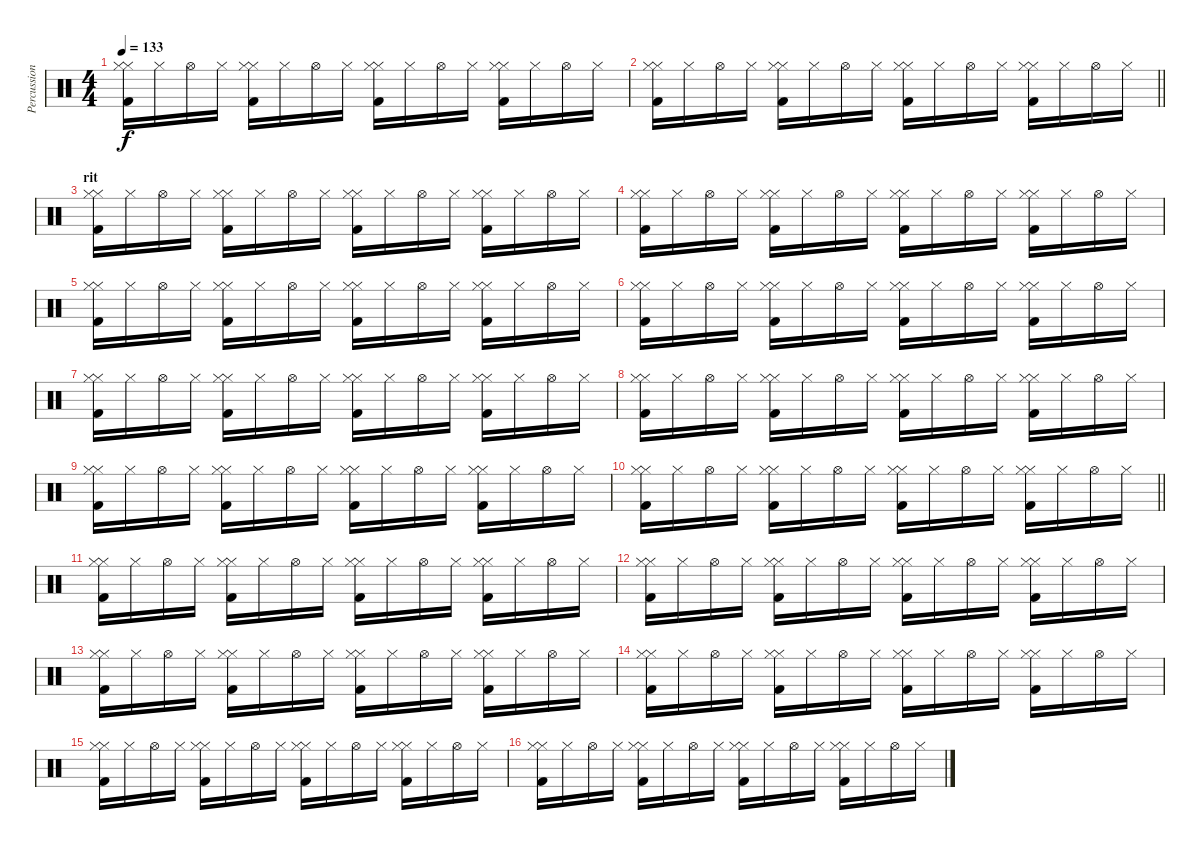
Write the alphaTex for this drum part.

\track ("Percussioni" "Percussion") {instrument percussion}
\staff {score}
\articulation defaults
\ts (4 4)
\tempo 133
\clef neutral
\ks c
("Hi-Hat (closed)" "Kick (hit) 2" "Hi-Hat (closed)").16{dy f} "Hi-Hat (closed)".16 "Hi-Hat (open)".16 "Hi-Hat (closed)".16 ("Hi-Hat (closed)" "Kick (hit) 2" "Hi-Hat (closed)").16 "Hi-Hat (closed)".16 "Hi-Hat (open)".16 "Hi-Hat (closed)".16 ("Hi-Hat (closed)" "Kick (hit) 2" "Hi-Hat (closed)").16 "Hi-Hat (closed)".16 "Hi-Hat (open)".16 "Hi-Hat (closed)".16 ("Hi-Hat (closed)" "Kick (hit) 2" "Hi-Hat (closed)").16 "Hi-Hat (closed)".16 "Hi-Hat (open)".16 "Hi-Hat (closed)".16 |
\barLineRight lightlight
("Hi-Hat (closed)" "Kick (hit) 2" "Hi-Hat (closed)").16 "Hi-Hat (closed)".16 "Hi-Hat (open)".16 "Hi-Hat (closed)".16 ("Hi-Hat (closed)" "Kick (hit) 2" "Hi-Hat (closed)").16 "Hi-Hat (closed)".16 "Hi-Hat (open)".16 "Hi-Hat (closed)".16 ("Hi-Hat (closed)" "Kick (hit) 2" "Hi-Hat (closed)").16 "Hi-Hat (closed)".16 "Hi-Hat (open)".16 "Hi-Hat (closed)".16 ("Hi-Hat (closed)" "Kick (hit) 2" "Hi-Hat (closed)").16 "Hi-Hat (closed)".16 "Hi-Hat (open)".16 "Hi-Hat (closed)".16 |
\section ("" "rit")
("Hi-Hat (closed)" "Kick (hit) 2" "Hi-Hat (closed)").16 "Hi-Hat (closed)".16 "Hi-Hat (open)".16 "Hi-Hat (closed)".16 ("Hi-Hat (closed)" "Kick (hit) 2" "Hi-Hat (closed)").16 "Hi-Hat (closed)".16 "Hi-Hat (open)".16 "Hi-Hat (closed)".16 ("Hi-Hat (closed)" "Kick (hit) 2" "Hi-Hat (closed)").16 "Hi-Hat (closed)".16 "Hi-Hat (open)".16 "Hi-Hat (closed)".16 ("Hi-Hat (closed)" "Kick (hit) 2" "Hi-Hat (closed)").16 "Hi-Hat (closed)".16 "Hi-Hat (open)".16 "Hi-Hat (closed)".16 |
("Hi-Hat (closed)" "Kick (hit) 2" "Hi-Hat (closed)").16 "Hi-Hat (closed)".16 "Hi-Hat (open)".16 "Hi-Hat (closed)".16 ("Hi-Hat (closed)" "Kick (hit) 2" "Hi-Hat (closed)").16 "Hi-Hat (closed)".16 "Hi-Hat (open)".16 "Hi-Hat (closed)".16 ("Hi-Hat (closed)" "Kick (hit) 2" "Hi-Hat (closed)").16 "Hi-Hat (closed)".16 "Hi-Hat (open)".16 "Hi-Hat (closed)".16 ("Hi-Hat (closed)" "Kick (hit) 2" "Hi-Hat (closed)").16 "Hi-Hat (closed)".16 "Hi-Hat (open)".16 "Hi-Hat (closed)".16 |
("Hi-Hat (closed)" "Kick (hit) 2" "Hi-Hat (closed)").16 "Hi-Hat (closed)".16 "Hi-Hat (open)".16 "Hi-Hat (closed)".16 ("Hi-Hat (closed)" "Kick (hit) 2" "Hi-Hat (closed)").16 "Hi-Hat (closed)".16 "Hi-Hat (open)".16 "Hi-Hat (closed)".16 ("Hi-Hat (closed)" "Kick (hit) 2" "Hi-Hat (closed)").16 "Hi-Hat (closed)".16 "Hi-Hat (open)".16 "Hi-Hat (closed)".16 ("Hi-Hat (closed)" "Kick (hit) 2" "Hi-Hat (closed)").16 "Hi-Hat (closed)".16 "Hi-Hat (open)".16 "Hi-Hat (closed)".16 |
("Hi-Hat (closed)" "Kick (hit) 2" "Hi-Hat (closed)").16 "Hi-Hat (closed)".16 "Hi-Hat (open)".16 "Hi-Hat (closed)".16 ("Hi-Hat (closed)" "Kick (hit) 2" "Hi-Hat (closed)").16 "Hi-Hat (closed)".16 "Hi-Hat (open)".16 "Hi-Hat (closed)".16 ("Hi-Hat (closed)" "Kick (hit) 2" "Hi-Hat (closed)").16 "Hi-Hat (closed)".16 "Hi-Hat (open)".16 "Hi-Hat (closed)".16 ("Hi-Hat (closed)" "Kick (hit) 2" "Hi-Hat (closed)").16 "Hi-Hat (closed)".16 "Hi-Hat (open)".16 "Hi-Hat (closed)".16 |
("Hi-Hat (closed)" "Kick (hit) 2" "Hi-Hat (closed)").16 "Hi-Hat (closed)".16 "Hi-Hat (open)".16 "Hi-Hat (closed)".16 ("Hi-Hat (closed)" "Kick (hit) 2" "Hi-Hat (closed)").16 "Hi-Hat (closed)".16 "Hi-Hat (open)".16 "Hi-Hat (closed)".16 ("Hi-Hat (closed)" "Kick (hit) 2" "Hi-Hat (closed)").16 "Hi-Hat (closed)".16 "Hi-Hat (open)".16 "Hi-Hat (closed)".16 ("Hi-Hat (closed)" "Kick (hit) 2" "Hi-Hat (closed)").16 "Hi-Hat (closed)".16 "Hi-Hat (open)".16 "Hi-Hat (closed)".16 |
("Hi-Hat (closed)" "Kick (hit) 2" "Hi-Hat (closed)").16 "Hi-Hat (closed)".16 "Hi-Hat (open)".16 "Hi-Hat (closed)".16 ("Hi-Hat (closed)" "Kick (hit) 2" "Hi-Hat (closed)").16 "Hi-Hat (closed)".16 "Hi-Hat (open)".16 "Hi-Hat (closed)".16 ("Hi-Hat (closed)" "Kick (hit) 2" "Hi-Hat (closed)").16 "Hi-Hat (closed)".16 "Hi-Hat (open)".16 "Hi-Hat (closed)".16 ("Hi-Hat (closed)" "Kick (hit) 2" "Hi-Hat (closed)").16 "Hi-Hat (closed)".16 "Hi-Hat (open)".16 "Hi-Hat (closed)".16 |
("Hi-Hat (closed)" "Kick (hit) 2" "Hi-Hat (closed)").16 "Hi-Hat (closed)".16 "Hi-Hat (open)".16 "Hi-Hat (closed)".16 ("Hi-Hat (closed)" "Kick (hit) 2" "Hi-Hat (closed)").16 "Hi-Hat (closed)".16 "Hi-Hat (open)".16 "Hi-Hat (closed)".16 ("Hi-Hat (closed)" "Kick (hit) 2" "Hi-Hat (closed)").16 "Hi-Hat (closed)".16 "Hi-Hat (open)".16 "Hi-Hat (closed)".16 ("Hi-Hat (closed)" "Kick (hit) 2" "Hi-Hat (closed)").16 "Hi-Hat (closed)".16 "Hi-Hat (open)".16 "Hi-Hat (closed)".16 |
\barLineRight lightlight
("Hi-Hat (closed)" "Kick (hit) 2" "Hi-Hat (closed)").16 "Hi-Hat (closed)".16 "Hi-Hat (open)".16 "Hi-Hat (closed)".16 ("Hi-Hat (closed)" "Kick (hit) 2" "Hi-Hat (closed)").16 "Hi-Hat (closed)".16 "Hi-Hat (open)".16 "Hi-Hat (closed)".16 ("Hi-Hat (closed)" "Kick (hit) 2" "Hi-Hat (closed)").16 "Hi-Hat (closed)".16 "Hi-Hat (open)".16 "Hi-Hat (closed)".16 ("Hi-Hat (closed)" "Kick (hit) 2" "Hi-Hat (closed)").16 "Hi-Hat (closed)".16 "Hi-Hat (open)".16 "Hi-Hat (closed)".16 |
("Hi-Hat (closed)" "Kick (hit) 2" "Hi-Hat (closed)").16 "Hi-Hat (closed)".16 "Hi-Hat (open)".16 "Hi-Hat (closed)".16 ("Hi-Hat (closed)" "Kick (hit) 2" "Hi-Hat (closed)").16 "Hi-Hat (closed)".16 "Hi-Hat (open)".16 "Hi-Hat (closed)".16 ("Hi-Hat (closed)" "Kick (hit) 2" "Hi-Hat (closed)").16 "Hi-Hat (closed)".16 "Hi-Hat (open)".16 "Hi-Hat (closed)".16 ("Hi-Hat (closed)" "Kick (hit) 2" "Hi-Hat (closed)").16 "Hi-Hat (closed)".16 "Hi-Hat (open)".16 "Hi-Hat (closed)".16 |
("Hi-Hat (closed)" "Kick (hit) 2" "Hi-Hat (closed)").16 "Hi-Hat (closed)".16 "Hi-Hat (open)".16 "Hi-Hat (closed)".16 ("Hi-Hat (closed)" "Kick (hit) 2" "Hi-Hat (closed)").16 "Hi-Hat (closed)".16 "Hi-Hat (open)".16 "Hi-Hat (closed)".16 ("Hi-Hat (closed)" "Kick (hit) 2" "Hi-Hat (closed)").16 "Hi-Hat (closed)".16 "Hi-Hat (open)".16 "Hi-Hat (closed)".16 ("Hi-Hat (closed)" "Kick (hit) 2" "Hi-Hat (closed)").16 "Hi-Hat (closed)".16 "Hi-Hat (open)".16 "Hi-Hat (closed)".16 |
("Hi-Hat (closed)" "Kick (hit) 2" "Hi-Hat (closed)").16 "Hi-Hat (closed)".16 "Hi-Hat (open)".16 "Hi-Hat (closed)".16 ("Hi-Hat (closed)" "Kick (hit) 2" "Hi-Hat (closed)").16 "Hi-Hat (closed)".16 "Hi-Hat (open)".16 "Hi-Hat (closed)".16 ("Hi-Hat (closed)" "Kick (hit) 2" "Hi-Hat (closed)").16 "Hi-Hat (closed)".16 "Hi-Hat (open)".16 "Hi-Hat (closed)".16 ("Hi-Hat (closed)" "Kick (hit) 2" "Hi-Hat (closed)").16 "Hi-Hat (closed)".16 "Hi-Hat (open)".16 "Hi-Hat (closed)".16 |
("Hi-Hat (closed)" "Kick (hit) 2" "Hi-Hat (closed)").16 "Hi-Hat (closed)".16 "Hi-Hat (open)".16 "Hi-Hat (closed)".16 ("Hi-Hat (closed)" "Kick (hit) 2" "Hi-Hat (closed)").16 "Hi-Hat (closed)".16 "Hi-Hat (open)".16 "Hi-Hat (closed)".16 ("Hi-Hat (closed)" "Kick (hit) 2" "Hi-Hat (closed)").16 "Hi-Hat (closed)".16 "Hi-Hat (open)".16 "Hi-Hat (closed)".16 ("Hi-Hat (closed)" "Kick (hit) 2" "Hi-Hat (closed)").16 "Hi-Hat (closed)".16 "Hi-Hat (open)".16 "Hi-Hat (closed)".16 |
("Hi-Hat (closed)" "Kick (hit) 2" "Hi-Hat (closed)").16 "Hi-Hat (closed)".16 "Hi-Hat (open)".16 "Hi-Hat (closed)".16 ("Hi-Hat (closed)" "Kick (hit) 2" "Hi-Hat (closed)").16 "Hi-Hat (closed)".16 "Hi-Hat (open)".16 "Hi-Hat (closed)".16 ("Hi-Hat (closed)" "Kick (hit) 2" "Hi-Hat (closed)").16 "Hi-Hat (closed)".16 "Hi-Hat (open)".16 "Hi-Hat (closed)".16 ("Hi-Hat (closed)" "Kick (hit) 2" "Hi-Hat (closed)").16 "Hi-Hat (closed)".16 "Hi-Hat (open)".16 "Hi-Hat (closed)".16 |
("Hi-Hat (closed)" "Kick (hit) 2" "Hi-Hat (closed)").16 "Hi-Hat (closed)".16 "Hi-Hat (open)".16 "Hi-Hat (closed)".16 ("Hi-Hat (closed)" "Kick (hit) 2" "Hi-Hat (closed)").16 "Hi-Hat (closed)".16 "Hi-Hat (open)".16 "Hi-Hat (closed)".16 ("Hi-Hat (closed)" "Kick (hit) 2" "Hi-Hat (closed)").16 "Hi-Hat (closed)".16 "Hi-Hat (open)".16 "Hi-Hat (closed)".16 ("Hi-Hat (closed)" "Kick (hit) 2" "Hi-Hat (closed)").16 "Hi-Hat (closed)".16 "Hi-Hat (open)".16 "Hi-Hat (closed)".16
